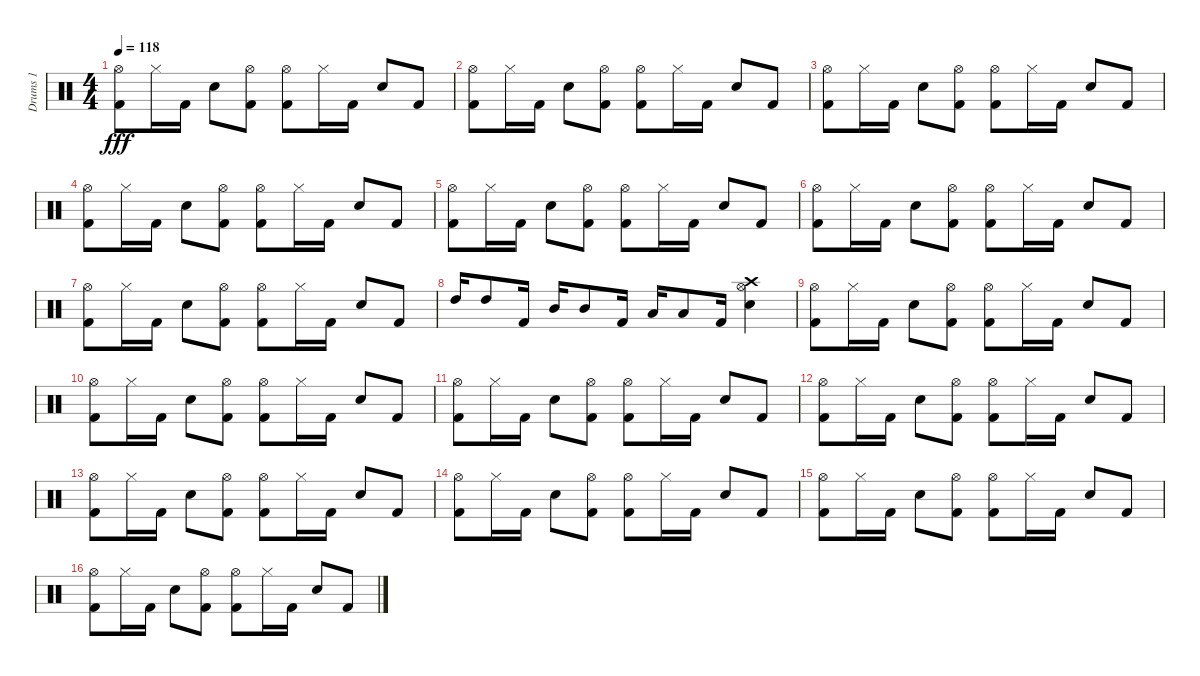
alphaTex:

\track ("Drums 1" "Drums 1") {instrument percussion}
\staff {score}
\articulation defaults
\ts (4 4)
\tempo 118
\clef neutral
\ks c
("Hi-Hat (open)" "Kick (hit) 2").8{dy fff} "Hi-Hat (closed)".16 "Kick (hit) 2".16 "Electric Snare (hit)".8 ("Hi-Hat (open)" "Kick (hit) 2").8 ("Hi-Hat (open)" "Kick (hit) 2").8 "Hi-Hat (closed)".16 "Kick (hit) 2".16 "Electric Snare (hit)".8 "Kick (hit) 2".8 |
("Hi-Hat (open)" "Kick (hit) 2").8 "Hi-Hat (closed)".16 "Kick (hit) 2".16 "Electric Snare (hit)".8 ("Hi-Hat (open)" "Kick (hit) 2").8 ("Hi-Hat (open)" "Kick (hit) 2").8 "Hi-Hat (closed)".16 "Kick (hit) 2".16 "Electric Snare (hit)".8 "Kick (hit) 2".8 |
("Hi-Hat (open)" "Kick (hit) 2").8 "Hi-Hat (closed)".16 "Kick (hit) 2".16 "Electric Snare (hit)".8 ("Hi-Hat (open)" "Kick (hit) 2").8 ("Hi-Hat (open)" "Kick (hit) 2").8 "Hi-Hat (closed)".16 "Kick (hit) 2".16 "Electric Snare (hit)".8 "Kick (hit) 2".8 |
("Hi-Hat (open)" "Kick (hit) 2").8 "Hi-Hat (closed)".16 "Kick (hit) 2".16 "Electric Snare (hit)".8 ("Hi-Hat (open)" "Kick (hit) 2").8 ("Hi-Hat (open)" "Kick (hit) 2").8 "Hi-Hat (closed)".16 "Kick (hit) 2".16 "Electric Snare (hit)".8 "Kick (hit) 2".8 |
("Hi-Hat (open)" "Kick (hit) 2").8 "Hi-Hat (closed)".16 "Kick (hit) 2".16 "Electric Snare (hit)".8 ("Hi-Hat (open)" "Kick (hit) 2").8 ("Hi-Hat (open)" "Kick (hit) 2").8 "Hi-Hat (closed)".16 "Kick (hit) 2".16 "Electric Snare (hit)".8 "Kick (hit) 2".8 |
("Hi-Hat (open)" "Kick (hit) 2").8 "Hi-Hat (closed)".16 "Kick (hit) 2".16 "Electric Snare (hit)".8 ("Hi-Hat (open)" "Kick (hit) 2").8 ("Hi-Hat (open)" "Kick (hit) 2").8 "Hi-Hat (closed)".16 "Kick (hit) 2".16 "Electric Snare (hit)".8 "Kick (hit) 2".8 |
("Hi-Hat (open)" "Kick (hit) 2").8 "Hi-Hat (closed)".16 "Kick (hit) 2".16 "Electric Snare (hit)".8 ("Hi-Hat (open)" "Kick (hit) 2").8 ("Hi-Hat (open)" "Kick (hit) 2").8 "Hi-Hat (closed)".16 "Kick (hit) 2".16 "Electric Snare (hit)".8 "Kick (hit) 2".8 |
"High Tom (hit)".16 "High Tom (hit)".8 "Kick (hit) 2".16 "Mid Tom (hit)".16 "Mid Tom (hit)".8 "Kick (hit) 2".16 "Low Tom (hit)".16 "Low Tom (hit)".8 "Kick (hit) 2".16 ("Hi-Hat (open)" "Electric Snare (hit)" "Crash high (hit)").4 |
("Hi-Hat (open)" "Kick (hit) 2").8 "Hi-Hat (closed)".16 "Kick (hit) 2".16 "Electric Snare (hit)".8 ("Hi-Hat (open)" "Kick (hit) 2").8 ("Hi-Hat (open)" "Kick (hit) 2").8 "Hi-Hat (closed)".16 "Kick (hit) 2".16 "Electric Snare (hit)".8 "Kick (hit) 2".8 |
("Hi-Hat (open)" "Kick (hit) 2").8 "Hi-Hat (closed)".16 "Kick (hit) 2".16 "Electric Snare (hit)".8 ("Hi-Hat (open)" "Kick (hit) 2").8 ("Hi-Hat (open)" "Kick (hit) 2").8 "Hi-Hat (closed)".16 "Kick (hit) 2".16 "Electric Snare (hit)".8 "Kick (hit) 2".8 |
("Hi-Hat (open)" "Kick (hit) 2").8 "Hi-Hat (closed)".16 "Kick (hit) 2".16 "Electric Snare (hit)".8 ("Hi-Hat (open)" "Kick (hit) 2").8 ("Hi-Hat (open)" "Kick (hit) 2").8 "Hi-Hat (closed)".16 "Kick (hit) 2".16 "Electric Snare (hit)".8 "Kick (hit) 2".8 |
("Hi-Hat (open)" "Kick (hit) 2").8 "Hi-Hat (closed)".16 "Kick (hit) 2".16 "Electric Snare (hit)".8 ("Hi-Hat (open)" "Kick (hit) 2").8 ("Hi-Hat (open)" "Kick (hit) 2").8 "Hi-Hat (closed)".16 "Kick (hit) 2".16 "Electric Snare (hit)".8 "Kick (hit) 2".8 |
("Hi-Hat (open)" "Kick (hit) 2").8 "Hi-Hat (closed)".16 "Kick (hit) 2".16 "Electric Snare (hit)".8 ("Hi-Hat (open)" "Kick (hit) 2").8 ("Hi-Hat (open)" "Kick (hit) 2").8 "Hi-Hat (closed)".16 "Kick (hit) 2".16 "Electric Snare (hit)".8 "Kick (hit) 2".8 |
("Hi-Hat (open)" "Kick (hit) 2").8 "Hi-Hat (closed)".16 "Kick (hit) 2".16 "Electric Snare (hit)".8 ("Hi-Hat (open)" "Kick (hit) 2").8 ("Hi-Hat (open)" "Kick (hit) 2").8 "Hi-Hat (closed)".16 "Kick (hit) 2".16 "Electric Snare (hit)".8 "Kick (hit) 2".8 |
("Hi-Hat (open)" "Kick (hit) 2").8 "Hi-Hat (closed)".16 "Kick (hit) 2".16 "Electric Snare (hit)".8 ("Hi-Hat (open)" "Kick (hit) 2").8 ("Hi-Hat (open)" "Kick (hit) 2").8 "Hi-Hat (closed)".16 "Kick (hit) 2".16 "Electric Snare (hit)".8 "Kick (hit) 2".8 |
("Hi-Hat (open)" "Kick (hit) 2").8 "Hi-Hat (closed)".16 "Kick (hit) 2".16 "Electric Snare (hit)".8 ("Hi-Hat (open)" "Kick (hit) 2").8 ("Hi-Hat (open)" "Kick (hit) 2").8 "Hi-Hat (closed)".16 "Kick (hit) 2".16 "Electric Snare (hit)".8 "Kick (hit) 2".8
